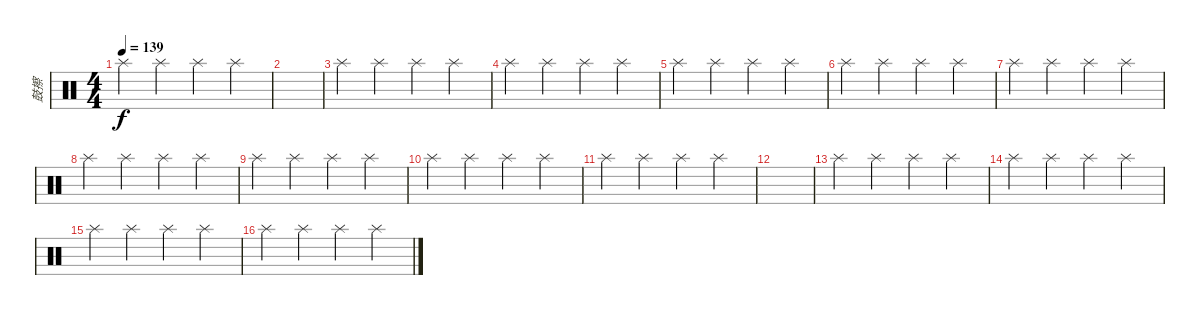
\track ("鼓擦" "鼓擦") {instrument percussion}
\staff {score}
\articulation defaults
\ts (4 4)
\tempo 139
\clef neutral
\ks c "Splash (hit)".4{dy f} "Splash (hit)".4 "Splash (hit)".4 "Splash (hit)".4
|
|
"Splash (hit)".4 "Splash (hit)".4 "Splash (hit)".4 "Splash (hit)".4 |
"Splash (hit)".4 "Splash (hit)".4 "Splash (hit)".4 "Splash (hit)".4 |
"Splash (hit)".4 "Splash (hit)".4 "Splash (hit)".4 "Splash (hit)".4 |
"Splash (hit)".4 "Splash (hit)".4 "Splash (hit)".4 "Splash (hit)".4 |
"Splash (hit)".4 "Splash (hit)".4 "Splash (hit)".4 "Splash (hit)".4 |
"Splash (hit)".4 "Splash (hit)".4 "Splash (hit)".4 "Splash (hit)".4 |
"Splash (hit)".4 "Splash (hit)".4 "Splash (hit)".4 "Splash (hit)".4 |
"Splash (hit)".4 "Splash (hit)".4 "Splash (hit)".4 "Splash (hit)".4 |
"Splash (hit)".4 "Splash (hit)".4 "Splash (hit)".4 "Splash (hit)".4 |
|
"Splash (hit)".4 "Splash (hit)".4 "Splash (hit)".4 "Splash (hit)".4 |
"Splash (hit)".4 "Splash (hit)".4 "Splash (hit)".4 "Splash (hit)".4 |
"Splash (hit)".4 "Splash (hit)".4 "Splash (hit)".4 "Splash (hit)".4 |
"Splash (hit)".4 "Splash (hit)".4 "Splash (hit)".4 "Splash (hit)".4
